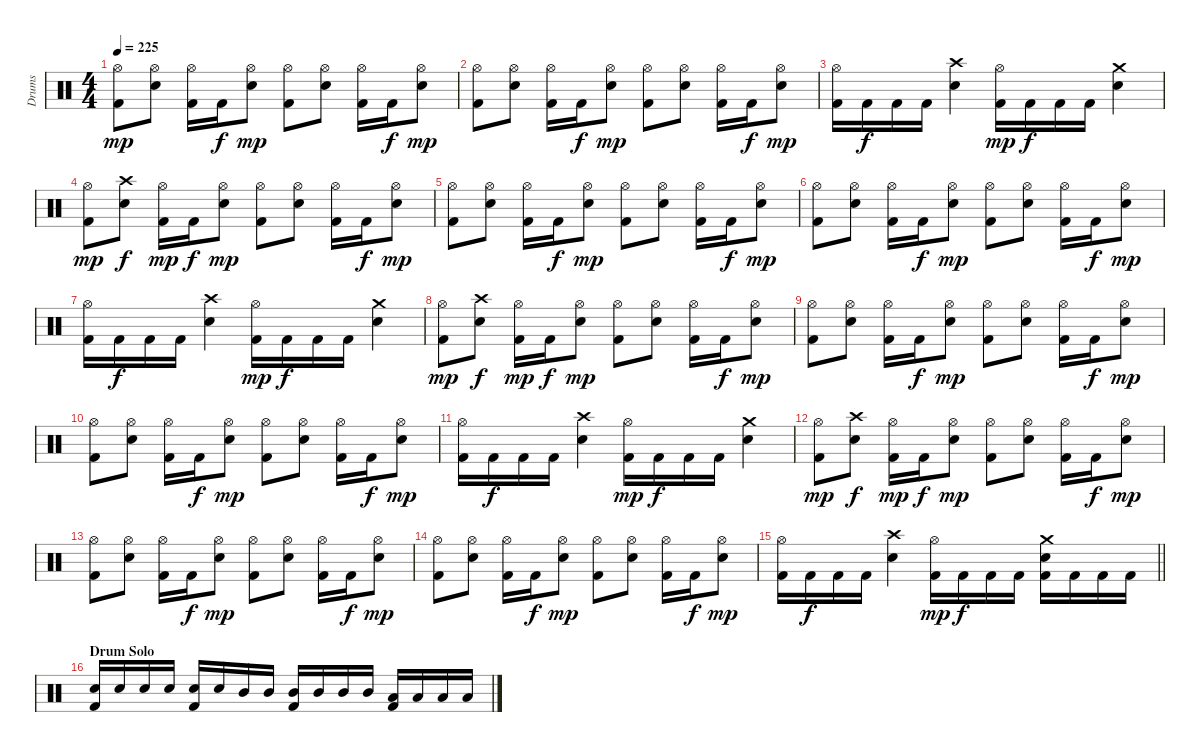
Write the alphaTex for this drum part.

\track ("Drums" "Drums") {instrument percussion}
\staff {score}
\articulation defaults
\ts (4 4)
\tempo 225
\clef neutral
\ks c
("Hi-Hat (open)" "Kick (hit) 2").8{dy mp} ("Hi-Hat (open)" "Snare (hit) 2").8 ("Hi-Hat (open)" "Kick (hit) 2").16 "Kick (hit) 2".16{dy f} ("Hi-Hat (open)" "Snare (hit) 2").8{dy mp} ("Hi-Hat (open)" "Kick (hit) 2").8 ("Hi-Hat (open)" "Snare (hit) 2").8 ("Hi-Hat (open)" "Kick (hit) 2").16 "Kick (hit) 2".16{dy f} ("Hi-Hat (open)" "Snare (hit) 2").8{dy mp} |
("Hi-Hat (open)" "Kick (hit) 2").8 ("Hi-Hat (open)" "Snare (hit) 2").8 ("Hi-Hat (open)" "Kick (hit) 2").16 "Kick (hit) 2".16{dy f} ("Hi-Hat (open)" "Snare (hit) 2").8{dy mp} ("Hi-Hat (open)" "Kick (hit) 2").8 ("Hi-Hat (open)" "Snare (hit) 2").8 ("Hi-Hat (open)" "Kick (hit) 2").16 "Kick (hit) 2".16{dy f} ("Hi-Hat (open)" "Snare (hit) 2").8{dy mp} |
("Hi-Hat (open)" "Kick (hit) 2").16 "Kick (hit) 2".16{dy f} "Kick (hit) 2".16 "Kick (hit) 2".16 ("Crash high (hit)" "Snare (hit) 2").4 ("Hi-Hat (open)" "Kick (hit) 2").16{dy mp} "Kick (hit) 2".16{dy f} "Kick (hit) 2".16 "Kick (hit) 2".16 ("Crash medium (hit)" "Snare (hit) 2").4 |
("Hi-Hat (open)" "Kick (hit) 2").8{dy mp} ("Crash high (hit)" "Snare (hit) 2").8{dy f} ("Hi-Hat (open)" "Kick (hit) 2").16{dy mp} "Kick (hit) 2".16{dy f} ("Hi-Hat (open)" "Snare (hit) 2").8{dy mp} ("Hi-Hat (open)" "Kick (hit) 2").8 ("Hi-Hat (open)" "Snare (hit) 2").8 ("Hi-Hat (open)" "Kick (hit) 2").16 "Kick (hit) 2".16{dy f} ("Hi-Hat (open)" "Snare (hit) 2").8{dy mp} |
("Hi-Hat (open)" "Kick (hit) 2").8 ("Hi-Hat (open)" "Snare (hit) 2").8 ("Hi-Hat (open)" "Kick (hit) 2").16 "Kick (hit) 2".16{dy f} ("Hi-Hat (open)" "Snare (hit) 2").8{dy mp} ("Hi-Hat (open)" "Kick (hit) 2").8 ("Hi-Hat (open)" "Snare (hit) 2").8 ("Hi-Hat (open)" "Kick (hit) 2").16 "Kick (hit) 2".16{dy f} ("Hi-Hat (open)" "Snare (hit) 2").8{dy mp} |
("Hi-Hat (open)" "Kick (hit) 2").8 ("Hi-Hat (open)" "Snare (hit) 2").8 ("Hi-Hat (open)" "Kick (hit) 2").16 "Kick (hit) 2".16{dy f} ("Hi-Hat (open)" "Snare (hit) 2").8{dy mp} ("Hi-Hat (open)" "Kick (hit) 2").8 ("Hi-Hat (open)" "Snare (hit) 2").8 ("Hi-Hat (open)" "Kick (hit) 2").16 "Kick (hit) 2".16{dy f} ("Hi-Hat (open)" "Snare (hit) 2").8{dy mp} |
("Hi-Hat (open)" "Kick (hit) 2").16 "Kick (hit) 2".16{dy f} "Kick (hit) 2".16 "Kick (hit) 2".16 ("Crash high (hit)" "Snare (hit) 2").4 ("Hi-Hat (open)" "Kick (hit) 2").16{dy mp} "Kick (hit) 2".16{dy f} "Kick (hit) 2".16 "Kick (hit) 2".16 ("Crash medium (hit)" "Snare (hit) 2").4 |
("Hi-Hat (open)" "Kick (hit) 2").8{dy mp} ("Crash high (hit)" "Snare (hit) 2").8{dy f} ("Hi-Hat (open)" "Kick (hit) 2").16{dy mp} "Kick (hit) 2".16{dy f} ("Hi-Hat (open)" "Snare (hit) 2").8{dy mp} ("Hi-Hat (open)" "Kick (hit) 2").8 ("Hi-Hat (open)" "Snare (hit) 2").8 ("Hi-Hat (open)" "Kick (hit) 2").16 "Kick (hit) 2".16{dy f} ("Hi-Hat (open)" "Snare (hit) 2").8{dy mp} |
("Hi-Hat (open)" "Kick (hit) 2").8 ("Hi-Hat (open)" "Snare (hit) 2").8 ("Hi-Hat (open)" "Kick (hit) 2").16 "Kick (hit) 2".16{dy f} ("Hi-Hat (open)" "Snare (hit) 2").8{dy mp} ("Hi-Hat (open)" "Kick (hit) 2").8 ("Hi-Hat (open)" "Snare (hit) 2").8 ("Hi-Hat (open)" "Kick (hit) 2").16 "Kick (hit) 2".16{dy f} ("Hi-Hat (open)" "Snare (hit) 2").8{dy mp} |
("Hi-Hat (open)" "Kick (hit) 2").8 ("Hi-Hat (open)" "Snare (hit) 2").8 ("Hi-Hat (open)" "Kick (hit) 2").16 "Kick (hit) 2".16{dy f} ("Hi-Hat (open)" "Snare (hit) 2").8{dy mp} ("Hi-Hat (open)" "Kick (hit) 2").8 ("Hi-Hat (open)" "Snare (hit) 2").8 ("Hi-Hat (open)" "Kick (hit) 2").16 "Kick (hit) 2".16{dy f} ("Hi-Hat (open)" "Snare (hit) 2").8{dy mp} |
("Hi-Hat (open)" "Kick (hit) 2").16 "Kick (hit) 2".16{dy f} "Kick (hit) 2".16 "Kick (hit) 2".16 ("Crash high (hit)" "Snare (hit) 2").4 ("Hi-Hat (open)" "Kick (hit) 2").16{dy mp} "Kick (hit) 2".16{dy f} "Kick (hit) 2".16 "Kick (hit) 2".16 ("Crash medium (hit)" "Snare (hit) 2").4 |
("Hi-Hat (open)" "Kick (hit) 2").8{dy mp} ("Crash high (hit)" "Snare (hit) 2").8{dy f} ("Hi-Hat (open)" "Kick (hit) 2").16{dy mp} "Kick (hit) 2".16{dy f} ("Hi-Hat (open)" "Snare (hit) 2").8{dy mp} ("Hi-Hat (open)" "Kick (hit) 2").8 ("Hi-Hat (open)" "Snare (hit) 2").8 ("Hi-Hat (open)" "Kick (hit) 2").16 "Kick (hit) 2".16{dy f} ("Hi-Hat (open)" "Snare (hit) 2").8{dy mp} |
("Hi-Hat (open)" "Kick (hit) 2").8 ("Hi-Hat (open)" "Snare (hit) 2").8 ("Hi-Hat (open)" "Kick (hit) 2").16 "Kick (hit) 2".16{dy f} ("Hi-Hat (open)" "Snare (hit) 2").8{dy mp} ("Hi-Hat (open)" "Kick (hit) 2").8 ("Hi-Hat (open)" "Snare (hit) 2").8 ("Hi-Hat (open)" "Kick (hit) 2").16 "Kick (hit) 2".16{dy f} ("Hi-Hat (open)" "Snare (hit) 2").8{dy mp} |
("Hi-Hat (open)" "Kick (hit) 2").8 ("Hi-Hat (open)" "Snare (hit) 2").8 ("Hi-Hat (open)" "Kick (hit) 2").16 "Kick (hit) 2".16{dy f} ("Hi-Hat (open)" "Snare (hit) 2").8{dy mp} ("Hi-Hat (open)" "Kick (hit) 2").8 ("Hi-Hat (open)" "Snare (hit) 2").8 ("Hi-Hat (open)" "Kick (hit) 2").16 "Kick (hit) 2".16{dy f} ("Hi-Hat (open)" "Snare (hit) 2").8{dy mp} |
\barLineRight lightlight
("Hi-Hat (open)" "Kick (hit) 2").16 "Kick (hit) 2".16{dy f} "Kick (hit) 2".16 "Kick (hit) 2".16 ("Crash high (hit)" "Snare (hit) 2").4 ("Hi-Hat (open)" "Kick (hit) 2").16{dy mp} "Kick (hit) 2".16{dy f} "Kick (hit) 2".16 "Kick (hit) 2".16 ("Crash medium (hit)" "Snare (hit) 2" "Kick (hit) 2").16 "Kick (hit) 2".16 "Kick (hit) 2".16 "Kick (hit) 2".16 |
\section ("" "Drum Solo")
("Snare (hit) 2" "Kick (hit) 2").16 "Snare (hit) 2".16 "Snare (hit) 2".16 "Snare (hit) 2".16 ("Snare (hit) 2" "Kick (hit) 2").16 "Snare (hit) 2".16 "Mid Tom (hit)".16 "Mid Tom (hit)".16 ("Mid Tom (hit)" "Kick (hit) 2").16 "Mid Tom (hit)".16 "Mid Tom (hit)".16 "Mid Tom (hit)".16 ("Low Tom (hit)" "Kick (hit) 2").16 "Low Tom (hit)".16 "Low Tom (hit)".16 "Low Tom (hit)".16
